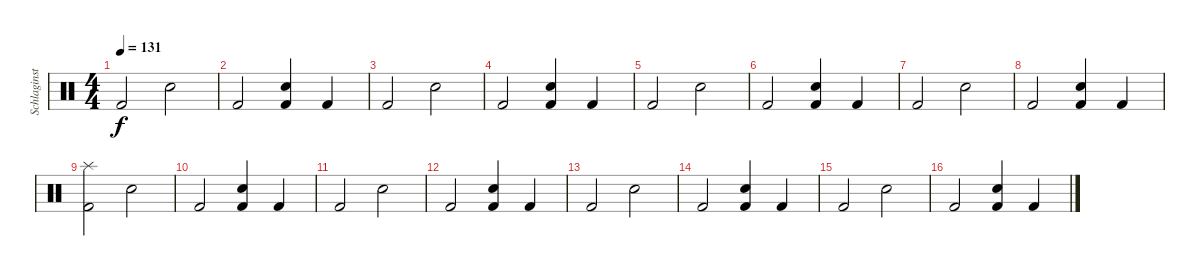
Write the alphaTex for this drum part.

\track ("Schlaginstrumente - Auswahl" "Schlaginst") {instrument percussion}
\staff {score}
\articulation defaults
\ts (4 4)
\tempo 131
\clef neutral
\ks c "Kick (hit) 2".2{dy f} "Snare (hit) 2".2
|
"Kick (hit) 2".2 ("Kick (hit) 2" "Snare (hit) 2").4 "Kick (hit) 2".4 |
"Kick (hit) 2".2 "Snare (hit) 2".2 |
"Kick (hit) 2".2 ("Kick (hit) 2" "Snare (hit) 2").4 "Kick (hit) 2".4 |
"Kick (hit) 2".2 "Snare (hit) 2".2 |
"Kick (hit) 2".2 ("Kick (hit) 2" "Snare (hit) 2").4 "Kick (hit) 2".4 |
"Kick (hit) 2".2 "Snare (hit) 2".2 |
"Kick (hit) 2".2 ("Kick (hit) 2" "Snare (hit) 2").4 "Kick (hit) 2".4 |
("Splash (hit)" "Kick (hit) 2").2 "Snare (hit) 2".2 |
"Kick (hit) 2".2 ("Kick (hit) 2" "Snare (hit) 2").4 "Kick (hit) 2".4 |
"Kick (hit) 2".2 "Snare (hit) 2".2 |
"Kick (hit) 2".2 ("Kick (hit) 2" "Snare (hit) 2").4 "Kick (hit) 2".4 |
"Kick (hit) 2".2 "Snare (hit) 2".2 |
"Kick (hit) 2".2 ("Kick (hit) 2" "Snare (hit) 2").4 "Kick (hit) 2".4 |
"Kick (hit) 2".2 "Snare (hit) 2".2 |
"Kick (hit) 2".2 ("Kick (hit) 2" "Snare (hit) 2").4 "Kick (hit) 2".4
